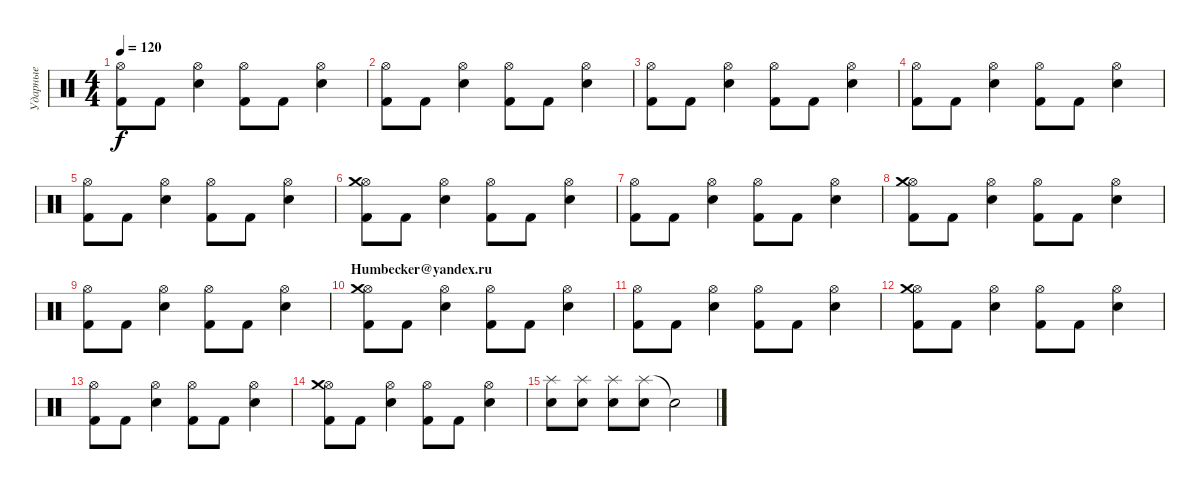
\track ("Ударные" "Ударные") {instrument percussion}
\staff {score}
\articulation defaults
\ts (4 4)
\tempo 120
\clef neutral
\ks c
("Hi-Hat (open)" "Kick (hit) 2").8{dy f} "Kick (hit) 2".8 ("Hi-Hat (open)" "Electric Snare (hit)").4 ("Hi-Hat (open)" "Kick (hit) 2").8 "Kick (hit) 2".8 ("Hi-Hat (open)" "Electric Snare (hit)").4 |
("Hi-Hat (open)" "Kick (hit) 2").8 "Kick (hit) 2".8 ("Hi-Hat (open)" "Electric Snare (hit)").4 ("Hi-Hat (open)" "Kick (hit) 2").8 "Kick (hit) 2".8 ("Hi-Hat (open)" "Electric Snare (hit)").4 |
("Hi-Hat (open)" "Kick (hit) 2").8 "Kick (hit) 2".8 ("Hi-Hat (open)" "Electric Snare (hit)").4 ("Hi-Hat (open)" "Kick (hit) 2").8 "Kick (hit) 2".8 ("Hi-Hat (open)" "Electric Snare (hit)").4 |
("Hi-Hat (open)" "Kick (hit) 2").8 "Kick (hit) 2".8 ("Hi-Hat (open)" "Electric Snare (hit)").4 ("Hi-Hat (open)" "Kick (hit) 2").8 "Kick (hit) 2".8 ("Hi-Hat (open)" "Electric Snare (hit)").4 |
("Hi-Hat (open)" "Kick (hit) 2").8 "Kick (hit) 2".8 ("Hi-Hat (open)" "Electric Snare (hit)").4 ("Hi-Hat (open)" "Kick (hit) 2").8 "Kick (hit) 2".8 ("Hi-Hat (open)" "Electric Snare (hit)").4 |
("Hi-Hat (open)" "Kick (hit) 2" "Crash medium (hit)").8 "Kick (hit) 2".8 ("Hi-Hat (open)" "Electric Snare (hit)").4 ("Hi-Hat (open)" "Kick (hit) 2").8 "Kick (hit) 2".8 ("Hi-Hat (open)" "Electric Snare (hit)").4 |
("Hi-Hat (open)" "Kick (hit) 2").8 "Kick (hit) 2".8 ("Hi-Hat (open)" "Electric Snare (hit)").4 ("Hi-Hat (open)" "Kick (hit) 2").8 "Kick (hit) 2".8 ("Hi-Hat (open)" "Electric Snare (hit)").4 |
("Hi-Hat (open)" "Kick (hit) 2" "Crash medium (hit)").8 "Kick (hit) 2".8 ("Hi-Hat (open)" "Electric Snare (hit)").4 ("Hi-Hat (open)" "Kick (hit) 2").8 "Kick (hit) 2".8 ("Hi-Hat (open)" "Electric Snare (hit)").4 |
("Hi-Hat (open)" "Kick (hit) 2").8 "Kick (hit) 2".8 ("Hi-Hat (open)" "Electric Snare (hit)").4 ("Hi-Hat (open)" "Kick (hit) 2").8 "Kick (hit) 2".8 ("Hi-Hat (open)" "Electric Snare (hit)").4 |
\section ("" "Humbecker@yandex.ru")
("Hi-Hat (open)" "Kick (hit) 2" "Crash medium (hit)").8 "Kick (hit) 2".8 ("Hi-Hat (open)" "Electric Snare (hit)").4 ("Hi-Hat (open)" "Kick (hit) 2").8 "Kick (hit) 2".8 ("Hi-Hat (open)" "Electric Snare (hit)").4 |
("Hi-Hat (open)" "Kick (hit) 2").8 "Kick (hit) 2".8 ("Hi-Hat (open)" "Electric Snare (hit)").4 ("Hi-Hat (open)" "Kick (hit) 2").8 "Kick (hit) 2".8 ("Hi-Hat (open)" "Electric Snare (hit)").4 |
("Hi-Hat (open)" "Kick (hit) 2" "Crash medium (hit)").8 "Kick (hit) 2".8 ("Hi-Hat (open)" "Electric Snare (hit)").4 ("Hi-Hat (open)" "Kick (hit) 2").8 "Kick (hit) 2".8 ("Hi-Hat (open)" "Electric Snare (hit)").4 |
("Hi-Hat (open)" "Kick (hit) 2").8 "Kick (hit) 2".8 ("Hi-Hat (open)" "Electric Snare (hit)").4 ("Hi-Hat (open)" "Kick (hit) 2").8 "Kick (hit) 2".8 ("Hi-Hat (open)" "Electric Snare (hit)").4 |
("Hi-Hat (open)" "Kick (hit) 2" "Crash medium (hit)").8 "Kick (hit) 2".8 ("Hi-Hat (open)" "Electric Snare (hit)").4 ("Hi-Hat (open)" "Kick (hit) 2").8 "Kick (hit) 2".8 ("Hi-Hat (open)" "Electric Snare (hit)").4 |
("Splash (hit)" "Electric Snare (hit)").8 ("Splash (hit)" "Electric Snare (hit)").8 ("Splash (hit)" "Electric Snare (hit)").8 ("Splash (hit)" "Electric Snare (hit)").8 "Snare (hit)"{t}.2
